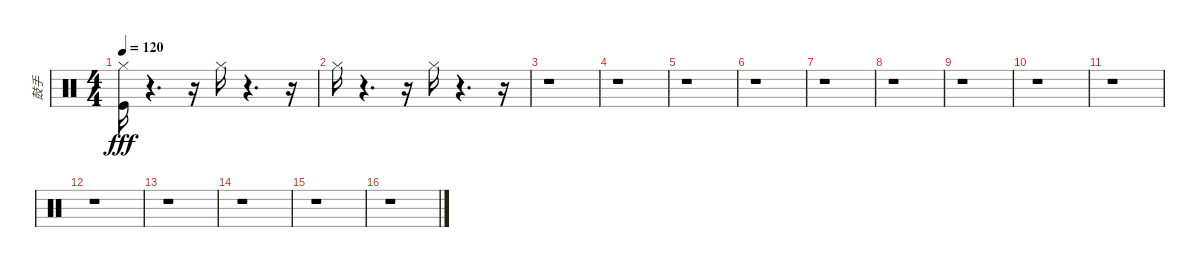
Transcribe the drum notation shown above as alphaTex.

\track ("鼓手" "鼓手") {instrument percussion}
\staff {score}
\articulation defaults
\ts (4 4)
\tempo 120
\clef neutral
\ks c
("Kick (hit)" "Hi-Hat (closed)").16{dy fff} r.4{d} r.16 "Hi-Hat (closed)".16 r.4{d} r.16 |
"Hi-Hat (closed)".16 r.4{d} r.16 "Hi-Hat (closed)".16 r.4{d} r.16 |
r.1 |
r.1 |
r.1 |
r.1 |
r.1 |
r.1 |
r.1 |
r.1 |
r.1 |
r.1 |
r.1 |
r.1 |
r.1 |
r.1
